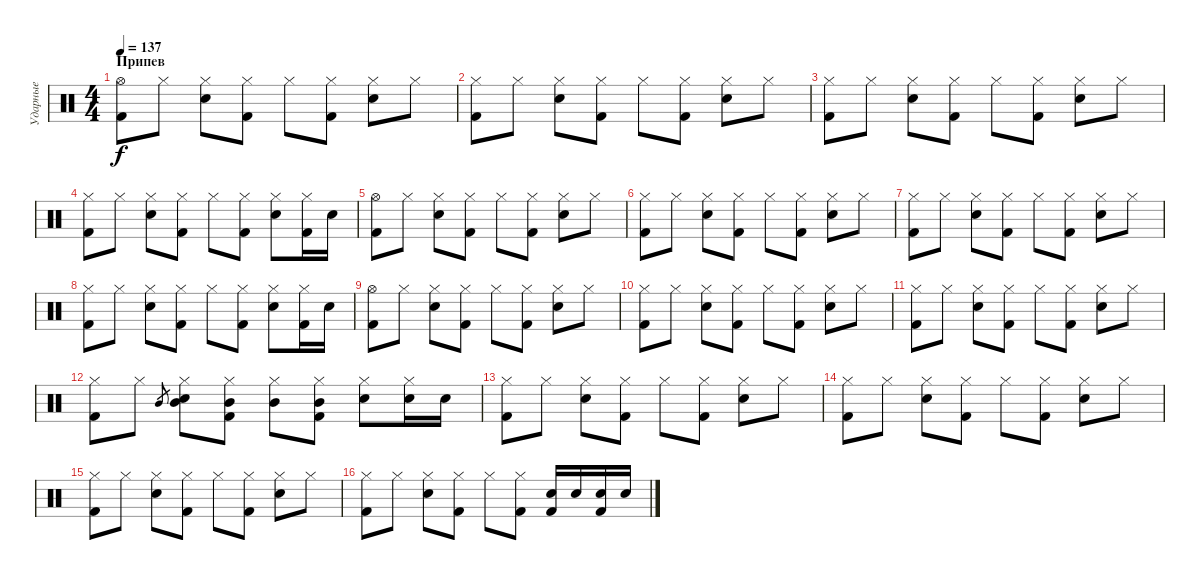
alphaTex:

\track ("Ударные" "Ударные") {instrument percussion}
\staff {score}
\articulation defaults
\ts (4 4)
\section ("" "Припев")
\tempo 137
\clef neutral
\ks c
("Hi-Hat (open)" "Kick (hit) 2").8{dy f} "Hi-Hat (closed)".8 ("Hi-Hat (closed)" "Electric Snare (hit)").8 ("Hi-Hat (closed)" "Kick (hit) 2").8 "Hi-Hat (closed)".8 ("Hi-Hat (closed)" "Kick (hit) 2").8 ("Hi-Hat (closed)" "Electric Snare (hit)").8 "Hi-Hat (closed)".8 |
("Hi-Hat (closed)" "Kick (hit) 2").8 "Hi-Hat (closed)".8 ("Hi-Hat (closed)" "Electric Snare (hit)").8 ("Hi-Hat (closed)" "Kick (hit) 2").8 "Hi-Hat (closed)".8 ("Hi-Hat (closed)" "Kick (hit) 2").8 ("Hi-Hat (closed)" "Electric Snare (hit)").8 "Hi-Hat (closed)".8 |
("Hi-Hat (closed)" "Kick (hit) 2").8 "Hi-Hat (closed)".8 ("Hi-Hat (closed)" "Electric Snare (hit)").8 ("Hi-Hat (closed)" "Kick (hit) 2").8 "Hi-Hat (closed)".8 ("Hi-Hat (closed)" "Kick (hit) 2").8 ("Hi-Hat (closed)" "Electric Snare (hit)").8 "Hi-Hat (closed)".8 |
("Hi-Hat (closed)" "Kick (hit) 2").8 "Hi-Hat (closed)".8 ("Hi-Hat (closed)" "Electric Snare (hit)").8 ("Hi-Hat (closed)" "Kick (hit) 2").8 "Hi-Hat (closed)".8 ("Hi-Hat (closed)" "Kick (hit) 2").8 ("Hi-Hat (closed)" "Electric Snare (hit)").8 ("Hi-Hat (closed)" "Kick (hit) 2").16 "Electric Snare (hit)".16 |
("Hi-Hat (open)" "Kick (hit) 2").8 "Hi-Hat (closed)".8 ("Hi-Hat (closed)" "Electric Snare (hit)").8 ("Hi-Hat (closed)" "Kick (hit) 2").8 "Hi-Hat (closed)".8 ("Hi-Hat (closed)" "Kick (hit) 2").8 ("Hi-Hat (closed)" "Electric Snare (hit)").8 "Hi-Hat (closed)".8 |
("Hi-Hat (closed)" "Kick (hit) 2").8 "Hi-Hat (closed)".8 ("Hi-Hat (closed)" "Electric Snare (hit)").8 ("Hi-Hat (closed)" "Kick (hit) 2").8 "Hi-Hat (closed)".8 ("Hi-Hat (closed)" "Kick (hit) 2").8 ("Hi-Hat (closed)" "Electric Snare (hit)").8 "Hi-Hat (closed)".8 |
("Hi-Hat (closed)" "Kick (hit) 2").8 "Hi-Hat (closed)".8 ("Hi-Hat (closed)" "Electric Snare (hit)").8 ("Hi-Hat (closed)" "Kick (hit) 2").8 "Hi-Hat (closed)".8 ("Hi-Hat (closed)" "Kick (hit) 2").8 ("Hi-Hat (closed)" "Electric Snare (hit)").8 "Hi-Hat (closed)".8 |
("Hi-Hat (closed)" "Kick (hit) 2").8 "Hi-Hat (closed)".8 ("Hi-Hat (closed)" "Electric Snare (hit)").8 ("Hi-Hat (closed)" "Kick (hit) 2").8 "Hi-Hat (closed)".8 ("Hi-Hat (closed)" "Kick (hit) 2").8 ("Hi-Hat (closed)" "Electric Snare (hit)").8 ("Hi-Hat (closed)" "Kick (hit) 2").16 "Electric Snare (hit)".16 |
("Hi-Hat (open)" "Kick (hit) 2").8 "Hi-Hat (closed)".8 ("Hi-Hat (closed)" "Electric Snare (hit)").8 ("Hi-Hat (closed)" "Kick (hit) 2").8 "Hi-Hat (closed)".8 ("Hi-Hat (closed)" "Kick (hit) 2").8 ("Hi-Hat (closed)" "Electric Snare (hit)").8 "Hi-Hat (closed)".8 |
("Hi-Hat (closed)" "Kick (hit) 2").8 "Hi-Hat (closed)".8 ("Hi-Hat (closed)" "Electric Snare (hit)").8 ("Hi-Hat (closed)" "Kick (hit) 2").8 "Hi-Hat (closed)".8 ("Hi-Hat (closed)" "Kick (hit) 2").8 ("Hi-Hat (closed)" "Electric Snare (hit)").8 "Hi-Hat (closed)".8 |
("Hi-Hat (closed)" "Kick (hit) 2").8 "Hi-Hat (closed)".8 ("Hi-Hat (closed)" "Electric Snare (hit)").8 ("Hi-Hat (closed)" "Kick (hit) 2").8 "Hi-Hat (closed)".8 ("Hi-Hat (closed)" "Kick (hit) 2").8 ("Hi-Hat (closed)" "Electric Snare (hit)").8 "Hi-Hat (closed)".8 |
("Hi-Hat (closed)" "Kick (hit) 2").8 "Hi-Hat (closed)".8 "Mid Tom (hit)".8{gr} ("Hi-Hat (closed)" "Electric Snare (hit)" "Mid Tom (hit)").8 ("Hi-Hat (closed)" "Kick (hit) 2" "Mid Tom (hit)").8 ("Hi-Hat (closed)" "Mid Tom (hit)").8 ("Hi-Hat (closed)" "Kick (hit) 2" "Mid Tom (hit)").8 ("Hi-Hat (closed)" "Electric Snare (hit)").8 ("Hi-Hat (closed)" "Electric Snare (hit)").16 "Electric Snare (hit)".16 |
("Hi-Hat (closed)" "Kick (hit) 2").8 "Hi-Hat (closed)".8 ("Hi-Hat (closed)" "Electric Snare (hit)").8 ("Hi-Hat (closed)" "Kick (hit) 2").8 "Hi-Hat (closed)".8 ("Hi-Hat (closed)" "Kick (hit) 2").8 ("Hi-Hat (closed)" "Electric Snare (hit)").8 "Hi-Hat (closed)".8 |
("Hi-Hat (closed)" "Kick (hit) 2").8 "Hi-Hat (closed)".8 ("Hi-Hat (closed)" "Electric Snare (hit)").8 ("Hi-Hat (closed)" "Kick (hit) 2").8 "Hi-Hat (closed)".8 ("Hi-Hat (closed)" "Kick (hit) 2").8 ("Hi-Hat (closed)" "Electric Snare (hit)").8 "Hi-Hat (closed)".8 |
("Hi-Hat (closed)" "Kick (hit) 2").8 "Hi-Hat (closed)".8 ("Hi-Hat (closed)" "Electric Snare (hit)").8 ("Hi-Hat (closed)" "Kick (hit) 2").8 "Hi-Hat (closed)".8 ("Hi-Hat (closed)" "Kick (hit) 2").8 ("Hi-Hat (closed)" "Electric Snare (hit)").8 "Hi-Hat (closed)".8 |
("Hi-Hat (closed)" "Kick (hit) 2").8 "Hi-Hat (closed)".8 ("Hi-Hat (closed)" "Electric Snare (hit)").8 ("Hi-Hat (closed)" "Kick (hit) 2").8 "Hi-Hat (closed)".8 ("Hi-Hat (closed)" "Kick (hit) 2").8 ("Kick (hit) 2" "Electric Snare (hit)").16 "Electric Snare (hit)".16 ("Kick (hit) 2" "Electric Snare (hit)").16 "Electric Snare (hit)".16
